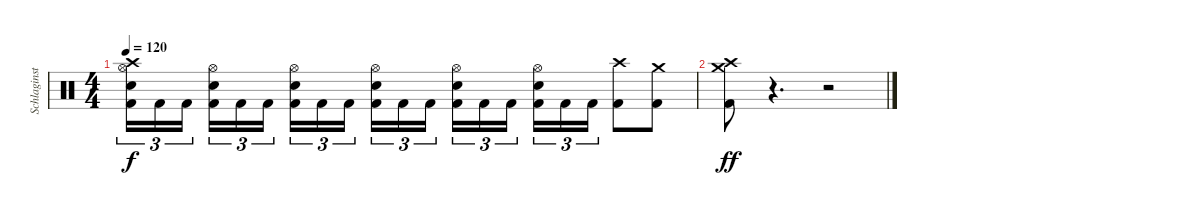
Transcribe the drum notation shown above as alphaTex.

\track ("Schlaginstrumente - Auswahl" "Schlaginst") {instrument percussion}
\staff {score}
\articulation defaults
\ts (4 4)
\tempo 120
\clef neutral
\ks c
("Crash high (hit)" "Hi-Hat (open)" "Snare (hit) 2" "Kick (hit) 2").16{tu (3 2) dy f} "Kick (hit) 2".16{tu (3 2)} "Kick (hit) 2".16{tu (3 2) beam splitsecondary} ("Hi-Hat (open)" "Snare (hit) 2" "Kick (hit) 2").16{tu (3 2)} "Kick (hit) 2".16{tu (3 2)} "Kick (hit) 2".16{tu (3 2)} ("Hi-Hat (open)" "Snare (hit) 2" "Kick (hit) 2").16{tu (3 2)} "Kick (hit) 2".16{tu (3 2)} "Kick (hit) 2".16{tu (3 2) beam splitsecondary} ("Hi-Hat (open)" "Snare (hit) 2" "Kick (hit) 2").16{tu (3 2)} "Kick (hit) 2".16{tu (3 2)} "Kick (hit) 2".16{tu (3 2)} ("Hi-Hat (open)" "Snare (hit) 2" "Kick (hit) 2").16{tu (3 2)} "Kick (hit) 2".16{tu (3 2)} "Kick (hit) 2".16{tu (3 2) beam splitsecondary} ("Hi-Hat (open)" "Snare (hit) 2" "Kick (hit) 2").16{tu (3 2)} "Kick (hit) 2".16{tu (3 2)} "Kick (hit) 2".16{tu (3 2)} ("Crash high (hit)" "Kick (hit) 2").8 ("Crash medium (hit)" "Kick (hit) 2").8 |
("Crash medium (hit)" "Crash high (hit)" "Kick (hit) 2").8{dy ff} r.4{d} r.2
